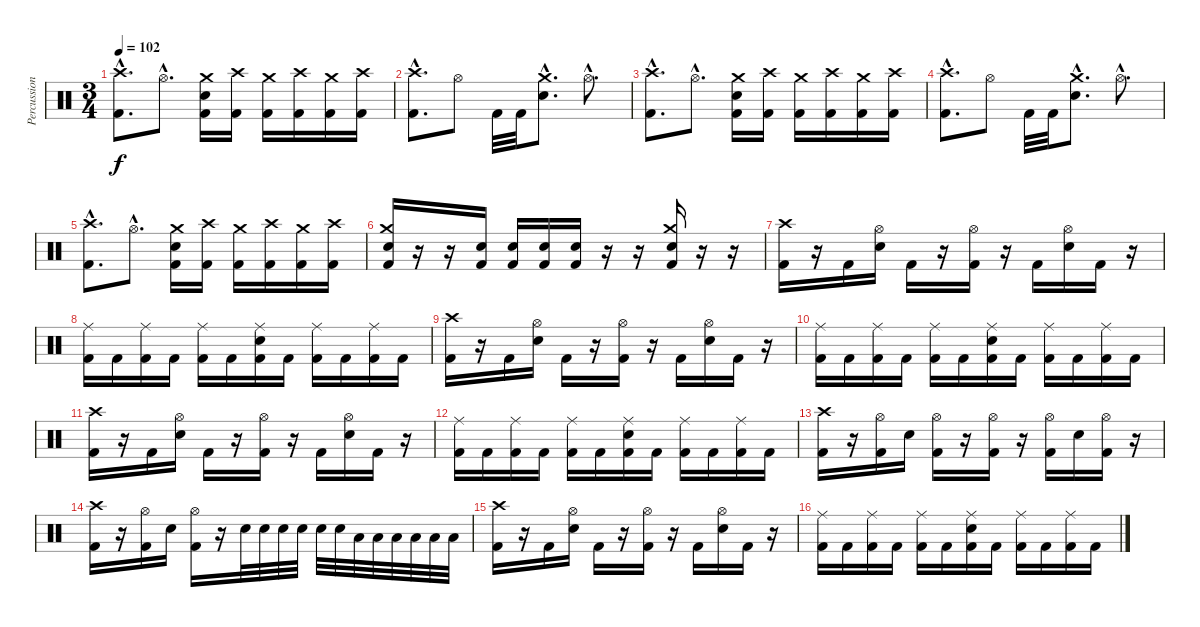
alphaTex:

\track ("Percussion" "Percussion") {instrument percussion}
\staff {score}
\articulation defaults
\ts (3 4)
\tempo 102
\clef neutral
\ks c
("Crash high (hit)"{hac} "Kick (hit) 2"{hac}).8{d dy f} "Hi-Hat (open)"{hac}.8{d} ("Crash medium (hit)" "Electric Snare (hit)" "Kick (hit) 2").16 ("Crash high (hit)" "Kick (hit) 2").16 ("Crash medium (hit)" "Kick (hit) 2").16 ("Crash high (hit)" "Kick (hit) 2").16 ("Crash medium (hit)" "Kick (hit) 2").16 ("Crash high (hit)" "Kick (hit) 2").16 |
("Crash high (hit)"{hac} "Kick (hit) 2"{hac}).8{d} "Hi-Hat (open)".8 "Kick (hit) 2".32 "Kick (hit) 2".32 ("Crash medium (hit)"{hac} "Electric Snare (hit)"{hac}).8{d} "Hi-Hat (open)"{hac}.8{d} |
("Crash high (hit)"{hac} "Kick (hit) 2"{hac}).8{d} "Hi-Hat (open)"{hac}.8{d} ("Crash medium (hit)" "Electric Snare (hit)" "Kick (hit) 2").16 ("Crash high (hit)" "Kick (hit) 2").16 ("Crash medium (hit)" "Kick (hit) 2").16 ("Crash high (hit)" "Kick (hit) 2").16 ("Crash medium (hit)" "Kick (hit) 2").16 ("Crash high (hit)" "Kick (hit) 2").16 |
("Crash high (hit)"{hac} "Kick (hit) 2"{hac}).8{d} "Hi-Hat (open)".8 "Kick (hit) 2".32 "Kick (hit) 2".32 ("Crash medium (hit)"{hac} "Electric Snare (hit)"{hac}).8{d} "Hi-Hat (open)"{hac}.8{d} |
("Crash high (hit)"{hac} "Kick (hit) 2"{hac}).8{d} "Hi-Hat (open)"{hac}.8{d} ("Crash medium (hit)" "Electric Snare (hit)" "Kick (hit) 2").16 ("Crash high (hit)" "Kick (hit) 2").16 ("Crash medium (hit)" "Kick (hit) 2").16 ("Crash high (hit)" "Kick (hit) 2").16 ("Crash medium (hit)" "Kick (hit) 2").16 ("Crash high (hit)" "Kick (hit) 2").16 |
("Crash medium (hit)" "Electric Snare (hit)" "Kick (hit) 2").16 r.16 r.16 ("Electric Snare (hit)" "Kick (hit) 2").16 ("Electric Snare (hit)" "Kick (hit) 2").16 ("Electric Snare (hit)" "Kick (hit) 2").16 ("Electric Snare (hit)" "Kick (hit) 2").16 r.16 r.16 ("Crash medium (hit)" "Electric Snare (hit)" "Kick (hit) 2").16 r.16 r.16 |
("Crash high (hit)" "Kick (hit) 2").16 r.16 "Kick (hit) 2".16 ("Hi-Hat (open)" "Electric Snare (hit)").16 "Kick (hit) 2".16 r.16 ("Hi-Hat (open)" "Kick (hit) 2").16 r.16 "Kick (hit) 2".16 ("Hi-Hat (open)" "Electric Snare (hit)").16 "Kick (hit) 2".16 r.16 |
("Ride (middle)" "Kick (hit) 2").16 "Kick (hit) 2".16 ("Ride (middle)" "Kick (hit) 2").16 "Kick (hit) 2".16 ("Ride (middle)" "Kick (hit) 2").16 "Kick (hit) 2".16 ("Ride (middle)" "Electric Snare (hit)" "Kick (hit) 2").16 "Kick (hit) 2".16 ("Ride (middle)" "Kick (hit) 2").16 "Kick (hit) 2".16 ("Ride (middle)" "Kick (hit) 2").16 "Kick (hit) 2".16 |
("Crash high (hit)" "Kick (hit) 2").16 r.16 "Kick (hit) 2".16 ("Hi-Hat (open)" "Electric Snare (hit)").16 "Kick (hit) 2".16 r.16 ("Hi-Hat (open)" "Kick (hit) 2").16 r.16 "Kick (hit) 2".16 ("Hi-Hat (open)" "Electric Snare (hit)").16 "Kick (hit) 2".16 r.16 |
("Ride (middle)" "Kick (hit) 2").16 "Kick (hit) 2".16 ("Ride (middle)" "Kick (hit) 2").16 "Kick (hit) 2".16 ("Ride (middle)" "Kick (hit) 2").16 "Kick (hit) 2".16 ("Ride (middle)" "Electric Snare (hit)" "Kick (hit) 2").16 "Kick (hit) 2".16 ("Ride (middle)" "Kick (hit) 2").16 "Kick (hit) 2".16 ("Ride (middle)" "Kick (hit) 2").16 "Kick (hit) 2".16 |
("Crash high (hit)" "Kick (hit) 2").16 r.16 "Kick (hit) 2".16 ("Hi-Hat (open)" "Electric Snare (hit)").16 "Kick (hit) 2".16 r.16 ("Hi-Hat (open)" "Kick (hit) 2").16 r.16 "Kick (hit) 2".16 ("Hi-Hat (open)" "Electric Snare (hit)").16 "Kick (hit) 2".16 r.16 |
("Ride (middle)" "Kick (hit) 2").16 "Kick (hit) 2".16 ("Ride (middle)" "Kick (hit) 2").16 "Kick (hit) 2".16 ("Ride (middle)" "Kick (hit) 2").16 "Kick (hit) 2".16 ("Ride (middle)" "Electric Snare (hit)" "Kick (hit) 2").16 "Kick (hit) 2".16 ("Ride (middle)" "Kick (hit) 2").16 "Kick (hit) 2".16 ("Ride (middle)" "Kick (hit) 2").16 "Kick (hit) 2".16 |
("Crash high (hit)" "Kick (hit) 2").16 r.16 ("Hi-Hat (open)" "Kick (hit) 2").16 "Electric Snare (hit)".16 ("Hi-Hat (open)" "Kick (hit) 2").16 r.16 ("Hi-Hat (open)" "Kick (hit) 2").16 r.16 ("Hi-Hat (open)" "Kick (hit) 2").16 "Electric Snare (hit)".16 ("Hi-Hat (open)" "Kick (hit) 2").16 r.16 |
("Crash high (hit)" "Kick (hit) 2").16 r.16 ("Hi-Hat (open)" "Kick (hit) 2").16 "Electric Snare (hit)".16 ("Hi-Hat (open)" "Kick (hit) 2").16 r.16 "Electric Snare (hit)".32 "Electric Snare (hit)".32 "Electric Snare (hit)".32 "Electric Snare (hit)".32 "Electric Snare (hit)".32 "Electric Snare (hit)".32 "Low Tom (hit)".32 "Low Tom (hit)".32 "Low Tom (hit)".32 "Low Tom (hit)".32 "Low Tom (hit)".32 "Low Tom (hit)".32 |
("Crash high (hit)" "Kick (hit) 2").16 r.16 "Kick (hit) 2".16 ("Hi-Hat (open)" "Electric Snare (hit)").16 "Kick (hit) 2".16 r.16 ("Hi-Hat (open)" "Kick (hit) 2").16 r.16 "Kick (hit) 2".16 ("Hi-Hat (open)" "Electric Snare (hit)").16 "Kick (hit) 2".16 r.16 |
("Ride (middle)" "Kick (hit) 2").16 "Kick (hit) 2".16 ("Ride (middle)" "Kick (hit) 2").16 "Kick (hit) 2".16 ("Ride (middle)" "Kick (hit) 2").16 "Kick (hit) 2".16 ("Ride (middle)" "Electric Snare (hit)" "Kick (hit) 2").16 "Kick (hit) 2".16 ("Ride (middle)" "Kick (hit) 2").16 "Kick (hit) 2".16 ("Ride (middle)" "Kick (hit) 2").16 "Kick (hit) 2".16
